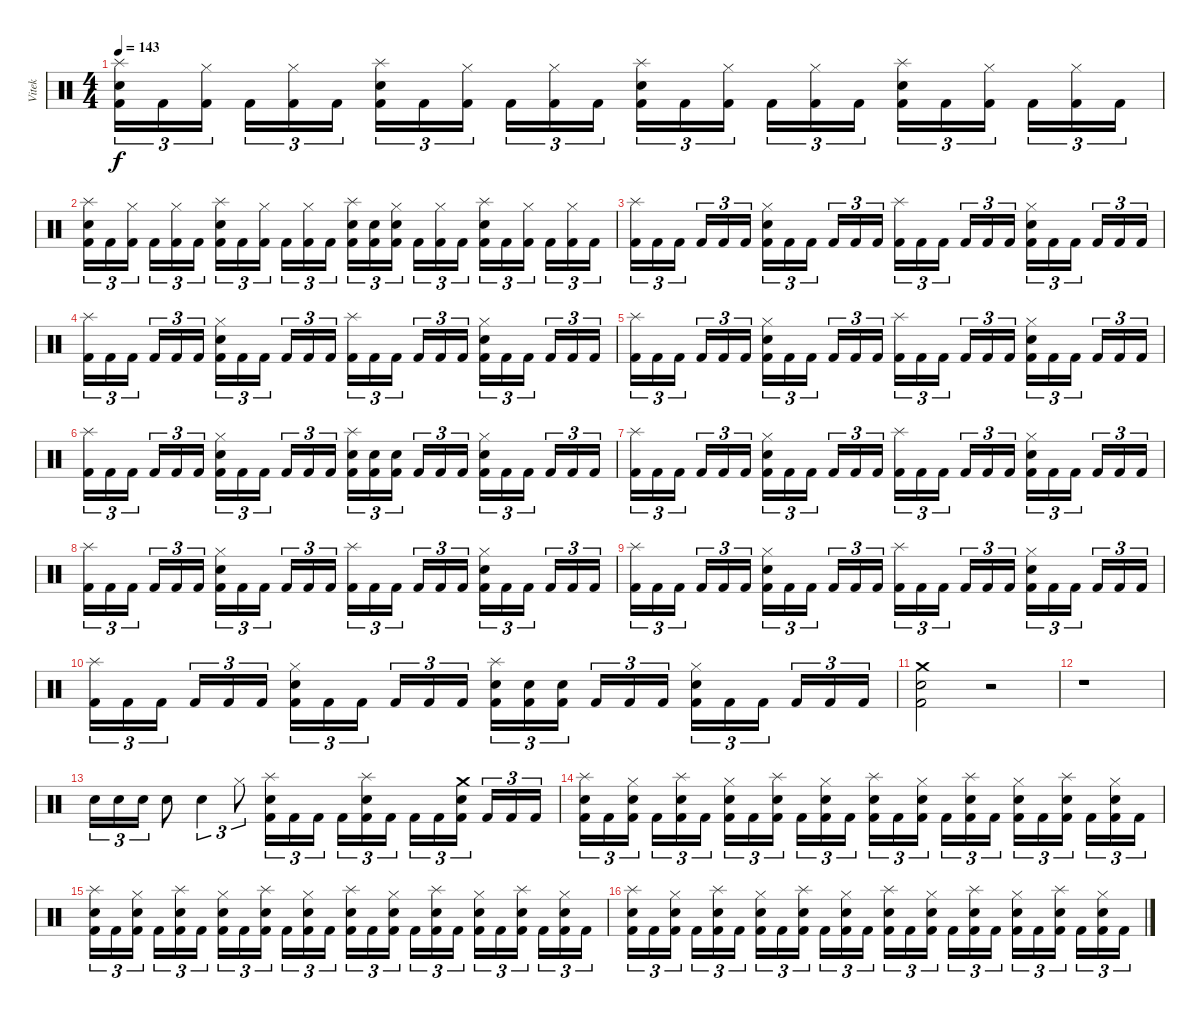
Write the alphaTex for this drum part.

\track ("Vitek" "Vitek") {instrument percussion}
\staff {score}
\articulation defaults
\ts (4 4)
\tempo 143
\clef neutral
\ks c
("Splash (hit)" "Electric Snare (hit)" "Kick (hit) 2").16{tu (3 2) dy f} "Kick (hit) 2".16{tu (3 2)} ("Hi-Hat (closed)" "Kick (hit) 2").16{tu (3 2) beam splitsecondary} "Kick (hit) 2".16{tu (3 2)} ("Hi-Hat (closed)" "Kick (hit) 2").16{tu (3 2)} "Kick (hit) 2".16{tu (3 2)} ("Splash (hit)" "Electric Snare (hit)" "Kick (hit) 2").16{tu (3 2)} "Kick (hit) 2".16{tu (3 2)} ("Hi-Hat (closed)" "Kick (hit) 2").16{tu (3 2) beam splitsecondary} "Kick (hit) 2".16{tu (3 2)} ("Hi-Hat (closed)" "Kick (hit) 2").16{tu (3 2)} "Kick (hit) 2".16{tu (3 2)} ("Splash (hit)" "Electric Snare (hit)" "Kick (hit) 2").16{tu (3 2)} "Kick (hit) 2".16{tu (3 2)} ("Hi-Hat (closed)" "Kick (hit) 2").16{tu (3 2) beam splitsecondary} "Kick (hit) 2".16{tu (3 2)} ("Hi-Hat (closed)" "Kick (hit) 2").16{tu (3 2)} "Kick (hit) 2".16{tu (3 2)} ("Splash (hit)" "Electric Snare (hit)" "Kick (hit) 2").16{tu (3 2)} "Kick (hit) 2".16{tu (3 2)} ("Hi-Hat (closed)" "Kick (hit) 2").16{tu (3 2) beam splitsecondary} "Kick (hit) 2".16{tu (3 2)} ("Hi-Hat (closed)" "Kick (hit) 2").16{tu (3 2)} "Kick (hit) 2".16{tu (3 2)} |
("Splash (hit)" "Electric Snare (hit)" "Kick (hit) 2").16{tu (3 2)} "Kick (hit) 2".16{tu (3 2)} ("Hi-Hat (closed)" "Kick (hit) 2").16{tu (3 2) beam splitsecondary} "Kick (hit) 2".16{tu (3 2)} ("Hi-Hat (closed)" "Kick (hit) 2").16{tu (3 2)} "Kick (hit) 2".16{tu (3 2)} ("Splash (hit)" "Electric Snare (hit)" "Kick (hit) 2").16{tu (3 2)} "Kick (hit) 2".16{tu (3 2)} ("Hi-Hat (closed)" "Kick (hit) 2").16{tu (3 2) beam splitsecondary} "Kick (hit) 2".16{tu (3 2)} ("Hi-Hat (closed)" "Kick (hit) 2").16{tu (3 2)} "Kick (hit) 2".16{tu (3 2)} ("Splash (hit)" "Electric Snare (hit)" "Kick (hit) 2").16{tu (3 2)} ("Electric Snare (hit)" "Kick (hit) 2").16{tu (3 2)} ("Hi-Hat (closed)" "Electric Snare (hit)" "Kick (hit) 2").16{tu (3 2) beam splitsecondary} "Kick (hit) 2".16{tu (3 2)} ("Hi-Hat (closed)" "Kick (hit) 2").16{tu (3 2)} "Kick (hit) 2".16{tu (3 2)} ("Splash (hit)" "Electric Snare (hit)" "Kick (hit) 2").16{tu (3 2)} "Kick (hit) 2".16{tu (3 2)} ("Hi-Hat (closed)" "Kick (hit) 2").16{tu (3 2) beam splitsecondary} "Kick (hit) 2".16{tu (3 2)} ("Hi-Hat (closed)" "Kick (hit) 2").16{tu (3 2)} "Kick (hit) 2".16{tu (3 2)} |
("Splash (hit)" "Kick (hit) 2").16{tu (3 2)} "Kick (hit) 2".16{tu (3 2)} "Kick (hit) 2".16{tu (3 2) beam splitsecondary} "Kick (hit) 2".16{tu (3 2)} "Kick (hit) 2".16{tu (3 2)} "Kick (hit) 2".16{tu (3 2)} ("Hi-Hat (closed)" "Electric Snare (hit)" "Kick (hit) 2").16{tu (3 2)} "Kick (hit) 2".16{tu (3 2)} "Kick (hit) 2".16{tu (3 2) beam splitsecondary} "Kick (hit) 2".16{tu (3 2)} "Kick (hit) 2".16{tu (3 2)} "Kick (hit) 2".16{tu (3 2)} ("Splash (hit)" "Kick (hit) 2").16{tu (3 2)} "Kick (hit) 2".16{tu (3 2)} "Kick (hit) 2".16{tu (3 2) beam splitsecondary} "Kick (hit) 2".16{tu (3 2)} "Kick (hit) 2".16{tu (3 2)} "Kick (hit) 2".16{tu (3 2)} ("Hi-Hat (closed)" "Electric Snare (hit)" "Kick (hit) 2").16{tu (3 2)} "Kick (hit) 2".16{tu (3 2)} "Kick (hit) 2".16{tu (3 2) beam splitsecondary} "Kick (hit) 2".16{tu (3 2)} "Kick (hit) 2".16{tu (3 2)} "Kick (hit) 2".16{tu (3 2)} |
("Splash (hit)" "Kick (hit) 2").16{tu (3 2)} "Kick (hit) 2".16{tu (3 2)} "Kick (hit) 2".16{tu (3 2) beam splitsecondary} "Kick (hit) 2".16{tu (3 2)} "Kick (hit) 2".16{tu (3 2)} "Kick (hit) 2".16{tu (3 2)} ("Hi-Hat (closed)" "Electric Snare (hit)" "Kick (hit) 2").16{tu (3 2)} "Kick (hit) 2".16{tu (3 2)} "Kick (hit) 2".16{tu (3 2) beam splitsecondary} "Kick (hit) 2".16{tu (3 2)} "Kick (hit) 2".16{tu (3 2)} "Kick (hit) 2".16{tu (3 2)} ("Splash (hit)" "Kick (hit) 2").16{tu (3 2)} "Kick (hit) 2".16{tu (3 2)} "Kick (hit) 2".16{tu (3 2) beam splitsecondary} "Kick (hit) 2".16{tu (3 2)} "Kick (hit) 2".16{tu (3 2)} "Kick (hit) 2".16{tu (3 2)} ("Hi-Hat (closed)" "Electric Snare (hit)" "Kick (hit) 2").16{tu (3 2)} "Kick (hit) 2".16{tu (3 2)} "Kick (hit) 2".16{tu (3 2) beam splitsecondary} "Kick (hit) 2".16{tu (3 2)} "Kick (hit) 2".16{tu (3 2)} "Kick (hit) 2".16{tu (3 2)} |
("Splash (hit)" "Kick (hit) 2").16{tu (3 2)} "Kick (hit) 2".16{tu (3 2)} "Kick (hit) 2".16{tu (3 2) beam splitsecondary} "Kick (hit) 2".16{tu (3 2)} "Kick (hit) 2".16{tu (3 2)} "Kick (hit) 2".16{tu (3 2)} ("Hi-Hat (closed)" "Electric Snare (hit)" "Kick (hit) 2").16{tu (3 2)} "Kick (hit) 2".16{tu (3 2)} "Kick (hit) 2".16{tu (3 2) beam splitsecondary} "Kick (hit) 2".16{tu (3 2)} "Kick (hit) 2".16{tu (3 2)} "Kick (hit) 2".16{tu (3 2)} ("Splash (hit)" "Kick (hit) 2").16{tu (3 2)} "Kick (hit) 2".16{tu (3 2)} "Kick (hit) 2".16{tu (3 2) beam splitsecondary} "Kick (hit) 2".16{tu (3 2)} "Kick (hit) 2".16{tu (3 2)} "Kick (hit) 2".16{tu (3 2)} ("Hi-Hat (closed)" "Electric Snare (hit)" "Kick (hit) 2").16{tu (3 2)} "Kick (hit) 2".16{tu (3 2)} "Kick (hit) 2".16{tu (3 2) beam splitsecondary} "Kick (hit) 2".16{tu (3 2)} "Kick (hit) 2".16{tu (3 2)} "Kick (hit) 2".16{tu (3 2)} |
("Splash (hit)" "Kick (hit) 2").16{tu (3 2)} "Kick (hit) 2".16{tu (3 2)} "Kick (hit) 2".16{tu (3 2) beam splitsecondary} "Kick (hit) 2".16{tu (3 2)} "Kick (hit) 2".16{tu (3 2)} "Kick (hit) 2".16{tu (3 2)} ("Hi-Hat (closed)" "Electric Snare (hit)" "Kick (hit) 2").16{tu (3 2)} "Kick (hit) 2".16{tu (3 2)} "Kick (hit) 2".16{tu (3 2) beam splitsecondary} "Kick (hit) 2".16{tu (3 2)} "Kick (hit) 2".16{tu (3 2)} "Kick (hit) 2".16{tu (3 2)} ("Splash (hit)" "Electric Snare (hit)" "Kick (hit) 2").16{tu (3 2)} ("Electric Snare (hit)" "Kick (hit) 2").16{tu (3 2)} ("Electric Snare (hit)" "Kick (hit) 2").16{tu (3 2) beam splitsecondary} "Kick (hit) 2".16{tu (3 2)} "Kick (hit) 2".16{tu (3 2)} "Kick (hit) 2".16{tu (3 2)} ("Hi-Hat (closed)" "Electric Snare (hit)" "Kick (hit) 2").16{tu (3 2)} "Kick (hit) 2".16{tu (3 2)} "Kick (hit) 2".16{tu (3 2) beam splitsecondary} "Kick (hit) 2".16{tu (3 2)} "Kick (hit) 2".16{tu (3 2)} "Kick (hit) 2".16{tu (3 2)} |
("Splash (hit)" "Kick (hit) 2").16{tu (3 2)} "Kick (hit) 2".16{tu (3 2)} "Kick (hit) 2".16{tu (3 2) beam splitsecondary} "Kick (hit) 2".16{tu (3 2)} "Kick (hit) 2".16{tu (3 2)} "Kick (hit) 2".16{tu (3 2)} ("Hi-Hat (closed)" "Electric Snare (hit)" "Kick (hit) 2").16{tu (3 2)} "Kick (hit) 2".16{tu (3 2)} "Kick (hit) 2".16{tu (3 2) beam splitsecondary} "Kick (hit) 2".16{tu (3 2)} "Kick (hit) 2".16{tu (3 2)} "Kick (hit) 2".16{tu (3 2)} ("Splash (hit)" "Kick (hit) 2").16{tu (3 2)} "Kick (hit) 2".16{tu (3 2)} "Kick (hit) 2".16{tu (3 2) beam splitsecondary} "Kick (hit) 2".16{tu (3 2)} "Kick (hit) 2".16{tu (3 2)} "Kick (hit) 2".16{tu (3 2)} ("Hi-Hat (closed)" "Electric Snare (hit)" "Kick (hit) 2").16{tu (3 2)} "Kick (hit) 2".16{tu (3 2)} "Kick (hit) 2".16{tu (3 2) beam splitsecondary} "Kick (hit) 2".16{tu (3 2)} "Kick (hit) 2".16{tu (3 2)} "Kick (hit) 2".16{tu (3 2)} |
("Splash (hit)" "Kick (hit) 2").16{tu (3 2)} "Kick (hit) 2".16{tu (3 2)} "Kick (hit) 2".16{tu (3 2) beam splitsecondary} "Kick (hit) 2".16{tu (3 2)} "Kick (hit) 2".16{tu (3 2)} "Kick (hit) 2".16{tu (3 2)} ("Hi-Hat (closed)" "Electric Snare (hit)" "Kick (hit) 2").16{tu (3 2)} "Kick (hit) 2".16{tu (3 2)} "Kick (hit) 2".16{tu (3 2) beam splitsecondary} "Kick (hit) 2".16{tu (3 2)} "Kick (hit) 2".16{tu (3 2)} "Kick (hit) 2".16{tu (3 2)} ("Splash (hit)" "Kick (hit) 2").16{tu (3 2)} "Kick (hit) 2".16{tu (3 2)} "Kick (hit) 2".16{tu (3 2) beam splitsecondary} "Kick (hit) 2".16{tu (3 2)} "Kick (hit) 2".16{tu (3 2)} "Kick (hit) 2".16{tu (3 2)} ("Hi-Hat (closed)" "Electric Snare (hit)" "Kick (hit) 2").16{tu (3 2)} "Kick (hit) 2".16{tu (3 2)} "Kick (hit) 2".16{tu (3 2) beam splitsecondary} "Kick (hit) 2".16{tu (3 2)} "Kick (hit) 2".16{tu (3 2)} "Kick (hit) 2".16{tu (3 2)} |
("Splash (hit)" "Kick (hit) 2").16{tu (3 2)} "Kick (hit) 2".16{tu (3 2)} "Kick (hit) 2".16{tu (3 2) beam splitsecondary} "Kick (hit) 2".16{tu (3 2)} "Kick (hit) 2".16{tu (3 2)} "Kick (hit) 2".16{tu (3 2)} ("Hi-Hat (closed)" "Electric Snare (hit)" "Kick (hit) 2").16{tu (3 2)} "Kick (hit) 2".16{tu (3 2)} "Kick (hit) 2".16{tu (3 2) beam splitsecondary} "Kick (hit) 2".16{tu (3 2)} "Kick (hit) 2".16{tu (3 2)} "Kick (hit) 2".16{tu (3 2)} ("Splash (hit)" "Kick (hit) 2").16{tu (3 2)} "Kick (hit) 2".16{tu (3 2)} "Kick (hit) 2".16{tu (3 2) beam splitsecondary} "Kick (hit) 2".16{tu (3 2)} "Kick (hit) 2".16{tu (3 2)} "Kick (hit) 2".16{tu (3 2)} ("Hi-Hat (closed)" "Electric Snare (hit)" "Kick (hit) 2").16{tu (3 2)} "Kick (hit) 2".16{tu (3 2)} "Kick (hit) 2".16{tu (3 2) beam splitsecondary} "Kick (hit) 2".16{tu (3 2)} "Kick (hit) 2".16{tu (3 2)} "Kick (hit) 2".16{tu (3 2)} |
("Splash (hit)" "Kick (hit) 2").16{tu (3 2)} "Kick (hit) 2".16{tu (3 2)} "Kick (hit) 2".16{tu (3 2) beam splitsecondary} "Kick (hit) 2".16{tu (3 2)} "Kick (hit) 2".16{tu (3 2)} "Kick (hit) 2".16{tu (3 2)} ("Hi-Hat (closed)" "Electric Snare (hit)" "Kick (hit) 2").16{tu (3 2)} "Kick (hit) 2".16{tu (3 2)} "Kick (hit) 2".16{tu (3 2) beam splitsecondary} "Kick (hit) 2".16{tu (3 2)} "Kick (hit) 2".16{tu (3 2)} "Kick (hit) 2".16{tu (3 2)} ("Splash (hit)" "Electric Snare (hit)" "Kick (hit) 2").16{tu (3 2)} ("Electric Snare (hit)" "Kick (hit) 2").16{tu (3 2)} ("Electric Snare (hit)" "Kick (hit) 2").16{tu (3 2) beam splitsecondary} "Kick (hit) 2".16{tu (3 2)} "Kick (hit) 2".16{tu (3 2)} "Kick (hit) 2".16{tu (3 2)} ("Hi-Hat (closed)" "Electric Snare (hit)" "Kick (hit) 2").16{tu (3 2)} "Kick (hit) 2".16{tu (3 2)} "Kick (hit) 2".16{tu (3 2) beam splitsecondary} "Kick (hit) 2".16{tu (3 2)} "Kick (hit) 2".16{tu (3 2)} "Kick (hit) 2".16{tu (3 2)} |
("Crash medium (hit)" "Electric Snare (hit)" "Kick (hit) 2").2 r.2 |
r.1 |
"Electric Snare (hit)".16{tu (3 2)} "Electric Snare (hit)".16{tu (3 2)} "Electric Snare (hit)".16{tu (3 2)} "Electric Snare (hit)".8 "Electric Snare (hit)".4{tu (3 2)} "Hi-Hat (closed)".8{tu (3 2)} ("Splash (hit)" "Electric Snare (hit)" "Kick (hit) 2").16{tu (3 2)} "Kick (hit) 2".16{tu (3 2)} "Kick (hit) 2".16{tu (3 2) beam splitsecondary} "Kick (hit) 2".16{tu (3 2)} ("Splash (hit)" "Electric Snare (hit)" "Kick (hit) 2").16{tu (3 2)} "Kick (hit) 2".16{tu (3 2)} "Kick (hit) 2".16{tu (3 2)} "Kick (hit) 2".16{tu (3 2)} ("Crash medium (hit)" "Electric Snare (hit)" "Kick (hit) 2").16{tu (3 2) beam splitsecondary} "Kick (hit) 2".16{tu (3 2)} "Kick (hit) 2".16{tu (3 2)} "Kick (hit) 2".16{tu (3 2)} |
("Splash (hit)" "Electric Snare (hit)" "Kick (hit) 2").16{tu (3 2)} "Kick (hit) 2".16{tu (3 2)} ("Hi-Hat (closed)" "Electric Snare (hit)" "Kick (hit) 2").16{tu (3 2) beam splitsecondary} "Kick (hit) 2".16{tu (3 2)} ("Splash (hit)" "Electric Snare (hit)" "Kick (hit) 2").16{tu (3 2)} "Kick (hit) 2".16{tu (3 2)} ("Hi-Hat (closed)" "Electric Snare (hit)" "Kick (hit) 2").16{tu (3 2)} "Kick (hit) 2".16{tu (3 2)} ("Splash (hit)" "Electric Snare (hit)" "Kick (hit) 2").16{tu (3 2) beam splitsecondary} "Kick (hit) 2".16{tu (3 2)} ("Hi-Hat (closed)" "Electric Snare (hit)" "Kick (hit) 2").16{tu (3 2)} "Kick (hit) 2".16{tu (3 2)} ("Splash (hit)" "Electric Snare (hit)" "Kick (hit) 2").16{tu (3 2)} "Kick (hit) 2".16{tu (3 2)} ("Hi-Hat (closed)" "Electric Snare (hit)" "Kick (hit) 2").16{tu (3 2) beam splitsecondary} "Kick (hit) 2".16{tu (3 2)} ("Splash (hit)" "Electric Snare (hit)" "Kick (hit) 2").16{tu (3 2)} "Kick (hit) 2".16{tu (3 2)} ("Hi-Hat (closed)" "Electric Snare (hit)" "Kick (hit) 2").16{tu (3 2)} "Kick (hit) 2".16{tu (3 2)} ("Splash (hit)" "Electric Snare (hit)" "Kick (hit) 2").16{tu (3 2) beam splitsecondary} "Kick (hit) 2".16{tu (3 2)} ("Hi-Hat (closed)" "Electric Snare (hit)" "Kick (hit) 2").16{tu (3 2)} "Kick (hit) 2".16{tu (3 2)} |
("Splash (hit)" "Electric Snare (hit)" "Kick (hit) 2").16{tu (3 2)} "Kick (hit) 2".16{tu (3 2)} ("Hi-Hat (closed)" "Electric Snare (hit)" "Kick (hit) 2").16{tu (3 2) beam splitsecondary} "Kick (hit) 2".16{tu (3 2)} ("Splash (hit)" "Electric Snare (hit)" "Kick (hit) 2").16{tu (3 2)} "Kick (hit) 2".16{tu (3 2)} ("Hi-Hat (closed)" "Electric Snare (hit)" "Kick (hit) 2").16{tu (3 2)} "Kick (hit) 2".16{tu (3 2)} ("Splash (hit)" "Electric Snare (hit)" "Kick (hit) 2").16{tu (3 2) beam splitsecondary} "Kick (hit) 2".16{tu (3 2)} ("Hi-Hat (closed)" "Electric Snare (hit)" "Kick (hit) 2").16{tu (3 2)} "Kick (hit) 2".16{tu (3 2)} ("Splash (hit)" "Electric Snare (hit)" "Kick (hit) 2").16{tu (3 2)} "Kick (hit) 2".16{tu (3 2)} ("Hi-Hat (closed)" "Electric Snare (hit)" "Kick (hit) 2").16{tu (3 2) beam splitsecondary} "Kick (hit) 2".16{tu (3 2)} ("Splash (hit)" "Electric Snare (hit)" "Kick (hit) 2").16{tu (3 2)} "Kick (hit) 2".16{tu (3 2)} ("Hi-Hat (closed)" "Electric Snare (hit)" "Kick (hit) 2").16{tu (3 2)} "Kick (hit) 2".16{tu (3 2)} ("Splash (hit)" "Electric Snare (hit)" "Kick (hit) 2").16{tu (3 2) beam splitsecondary} "Kick (hit) 2".16{tu (3 2)} ("Hi-Hat (closed)" "Electric Snare (hit)" "Kick (hit) 2").16{tu (3 2)} "Kick (hit) 2".16{tu (3 2)} |
("Splash (hit)" "Electric Snare (hit)" "Kick (hit) 2").16{tu (3 2)} "Kick (hit) 2".16{tu (3 2)} ("Hi-Hat (closed)" "Electric Snare (hit)" "Kick (hit) 2").16{tu (3 2) beam splitsecondary} "Kick (hit) 2".16{tu (3 2)} ("Splash (hit)" "Electric Snare (hit)" "Kick (hit) 2").16{tu (3 2)} "Kick (hit) 2".16{tu (3 2)} ("Hi-Hat (closed)" "Electric Snare (hit)" "Kick (hit) 2").16{tu (3 2)} "Kick (hit) 2".16{tu (3 2)} ("Splash (hit)" "Electric Snare (hit)" "Kick (hit) 2").16{tu (3 2) beam splitsecondary} "Kick (hit) 2".16{tu (3 2)} ("Hi-Hat (closed)" "Electric Snare (hit)" "Kick (hit) 2").16{tu (3 2)} "Kick (hit) 2".16{tu (3 2)} ("Splash (hit)" "Electric Snare (hit)" "Kick (hit) 2").16{tu (3 2)} "Kick (hit) 2".16{tu (3 2)} ("Hi-Hat (closed)" "Electric Snare (hit)" "Kick (hit) 2").16{tu (3 2) beam splitsecondary} "Kick (hit) 2".16{tu (3 2)} ("Splash (hit)" "Electric Snare (hit)" "Kick (hit) 2").16{tu (3 2)} "Kick (hit) 2".16{tu (3 2)} ("Hi-Hat (closed)" "Electric Snare (hit)" "Kick (hit) 2").16{tu (3 2)} "Kick (hit) 2".16{tu (3 2)} ("Splash (hit)" "Electric Snare (hit)" "Kick (hit) 2").16{tu (3 2) beam splitsecondary} "Kick (hit) 2".16{tu (3 2)} ("Hi-Hat (closed)" "Electric Snare (hit)" "Kick (hit) 2").16{tu (3 2)} "Kick (hit) 2".16{tu (3 2)}
